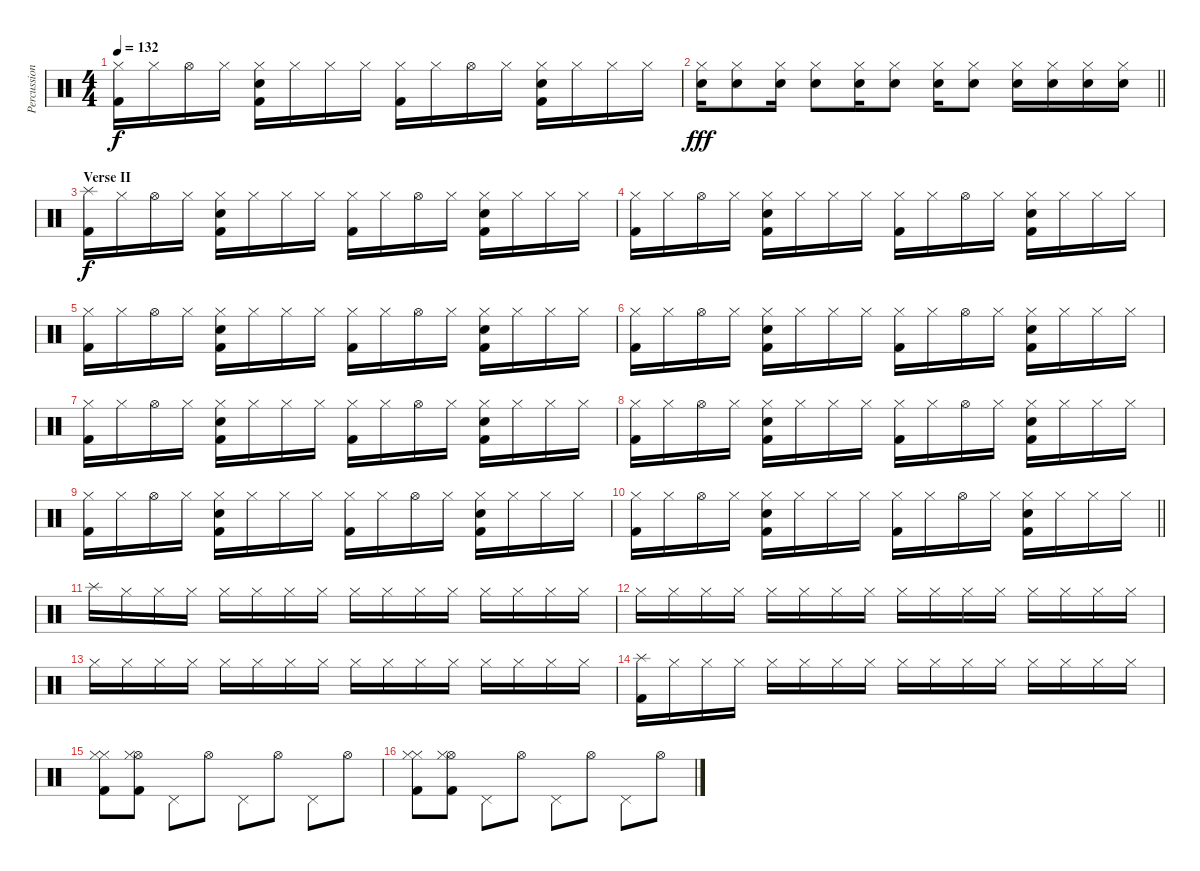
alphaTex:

\track ("Percussion I" "Percussion") {instrument percussion}
\staff {score}
\articulation defaults
\ts (4 4)
\tempo 132
\clef neutral
\ks c
("Hi-Hat (closed)" "Kick (hit) 2").16{dy f} "Hi-Hat (closed)".16 "Hi-Hat (open)".16 "Hi-Hat (closed)".16 ("Hi-Hat (closed)" "Hand Clap (hit)" "Kick (hit) 2").16 "Hi-Hat (closed)".16 "Hi-Hat (closed)".16 "Hi-Hat (closed)".16 ("Hi-Hat (closed)" "Kick (hit) 2").16 "Hi-Hat (closed)".16 "Hi-Hat (open)".16 "Hi-Hat (closed)".16 ("Hi-Hat (closed)" "Hand Clap (hit)" "Kick (hit) 2").16 "Hi-Hat (closed)".16 "Hi-Hat (closed)".16 "Hi-Hat (closed)".16 |
\barLineRight lightlight
("Electric Snare (hit)" "Hi-Hat (closed)").16{dy fff} ("Electric Snare (hit)" "Hi-Hat (closed)").8 ("Electric Snare (hit)" "Hi-Hat (closed)").16 ("Electric Snare (hit)" "Hi-Hat (closed)").8 ("Electric Snare (hit)" "Hi-Hat (closed)").16 ("Electric Snare (hit)" "Hi-Hat (closed)").8 ("Electric Snare (hit)" "Hi-Hat (closed)").16 ("Electric Snare (hit)" "Hi-Hat (closed)").8 ("Electric Snare (hit)" "Hi-Hat (closed)").16 ("Electric Snare (hit)" "Hi-Hat (closed)").16 ("Electric Snare (hit)" "Hi-Hat (closed)").16 ("Electric Snare (hit)" "Hi-Hat (closed)").16 |
\section ("" "Verse II")
("Splash (hit)" "Kick (hit) 2").16{dy f} "Hi-Hat (closed)".16 "Hi-Hat (open)".16 "Hi-Hat (closed)".16 ("Hi-Hat (closed)" "Hand Clap (hit)" "Kick (hit) 2").16 "Hi-Hat (closed)".16 "Hi-Hat (closed)".16 "Hi-Hat (closed)".16 ("Hi-Hat (closed)" "Kick (hit) 2").16 "Hi-Hat (closed)".16 "Hi-Hat (open)".16 "Hi-Hat (closed)".16 ("Hi-Hat (closed)" "Hand Clap (hit)" "Kick (hit) 2").16 "Hi-Hat (closed)".16 "Hi-Hat (closed)".16 "Hi-Hat (closed)".16 |
("Hi-Hat (closed)" "Kick (hit) 2").16 "Hi-Hat (closed)".16 "Hi-Hat (open)".16 "Hi-Hat (closed)".16 ("Hi-Hat (closed)" "Hand Clap (hit)" "Kick (hit) 2").16 "Hi-Hat (closed)".16 "Hi-Hat (closed)".16 "Hi-Hat (closed)".16 ("Hi-Hat (closed)" "Kick (hit) 2").16 "Hi-Hat (closed)".16 "Hi-Hat (open)".16 "Hi-Hat (closed)".16 ("Hi-Hat (closed)" "Hand Clap (hit)" "Kick (hit) 2").16 "Hi-Hat (closed)".16 "Hi-Hat (closed)".16 "Hi-Hat (closed)".16 |
("Hi-Hat (closed)" "Kick (hit) 2").16 "Hi-Hat (closed)".16 "Hi-Hat (open)".16 "Hi-Hat (closed)".16 ("Hi-Hat (closed)" "Hand Clap (hit)" "Kick (hit) 2").16 "Hi-Hat (closed)".16 "Hi-Hat (closed)".16 "Hi-Hat (closed)".16 ("Hi-Hat (closed)" "Kick (hit) 2").16 "Hi-Hat (closed)".16 "Hi-Hat (open)".16 "Hi-Hat (closed)".16 ("Hi-Hat (closed)" "Hand Clap (hit)" "Kick (hit) 2").16 "Hi-Hat (closed)".16 "Hi-Hat (closed)".16 "Hi-Hat (closed)".16 |
("Hi-Hat (closed)" "Kick (hit) 2").16 "Hi-Hat (closed)".16 "Hi-Hat (open)".16 "Hi-Hat (closed)".16 ("Hi-Hat (closed)" "Hand Clap (hit)" "Kick (hit) 2").16 "Hi-Hat (closed)".16 "Hi-Hat (closed)".16 "Hi-Hat (closed)".16 ("Hi-Hat (closed)" "Kick (hit) 2").16 "Hi-Hat (closed)".16 "Hi-Hat (open)".16 "Hi-Hat (closed)".16 ("Hi-Hat (closed)" "Hand Clap (hit)" "Kick (hit) 2").16 "Hi-Hat (closed)".16 "Hi-Hat (closed)".16 "Hi-Hat (closed)".16 |
("Hi-Hat (closed)" "Kick (hit) 2").16 "Hi-Hat (closed)".16 "Hi-Hat (open)".16 "Hi-Hat (closed)".16 ("Hi-Hat (closed)" "Hand Clap (hit)" "Kick (hit) 2").16 "Hi-Hat (closed)".16 "Hi-Hat (closed)".16 "Hi-Hat (closed)".16 ("Hi-Hat (closed)" "Kick (hit) 2").16 "Hi-Hat (closed)".16 "Hi-Hat (open)".16 "Hi-Hat (closed)".16 ("Hi-Hat (closed)" "Hand Clap (hit)" "Kick (hit) 2").16 "Hi-Hat (closed)".16 "Hi-Hat (closed)".16 "Hi-Hat (closed)".16 |
("Hi-Hat (closed)" "Kick (hit) 2").16 "Hi-Hat (closed)".16 "Hi-Hat (open)".16 "Hi-Hat (closed)".16 ("Hi-Hat (closed)" "Hand Clap (hit)" "Kick (hit) 2").16 "Hi-Hat (closed)".16 "Hi-Hat (closed)".16 "Hi-Hat (closed)".16 ("Hi-Hat (closed)" "Kick (hit) 2").16 "Hi-Hat (closed)".16 "Hi-Hat (open)".16 "Hi-Hat (closed)".16 ("Hi-Hat (closed)" "Hand Clap (hit)" "Kick (hit) 2").16 "Hi-Hat (closed)".16 "Hi-Hat (closed)".16 "Hi-Hat (closed)".16 |
("Hi-Hat (closed)" "Kick (hit) 2").16 "Hi-Hat (closed)".16 "Hi-Hat (open)".16 "Hi-Hat (closed)".16 ("Hi-Hat (closed)" "Hand Clap (hit)" "Kick (hit) 2").16 "Hi-Hat (closed)".16 "Hi-Hat (closed)".16 "Hi-Hat (closed)".16 ("Hi-Hat (closed)" "Kick (hit) 2").16 "Hi-Hat (closed)".16 "Hi-Hat (open)".16 "Hi-Hat (closed)".16 ("Hi-Hat (closed)" "Hand Clap (hit)" "Kick (hit) 2").16 "Hi-Hat (closed)".16 "Hi-Hat (closed)".16 "Hi-Hat (closed)".16 |
\barLineRight lightlight
("Hi-Hat (closed)" "Kick (hit) 2").16 "Hi-Hat (closed)".16 "Hi-Hat (open)".16 "Hi-Hat (closed)".16 ("Hi-Hat (closed)" "Hand Clap (hit)" "Kick (hit) 2").16 "Hi-Hat (closed)".16 "Hi-Hat (closed)".16 "Hi-Hat (closed)".16 ("Hi-Hat (closed)" "Kick (hit) 2").16 "Hi-Hat (closed)".16 "Hi-Hat (open)".16 "Hi-Hat (closed)".16 ("Hi-Hat (closed)" "Hand Clap (hit)" "Kick (hit) 2").16 "Hi-Hat (closed)".16 "Hi-Hat (closed)".16 "Hi-Hat (closed)".16 |
\section ("" "")
"Splash (hit)".16 "Hi-Hat (closed)".16 "Hi-Hat (closed)".16 "Hi-Hat (closed)".16 "Hi-Hat (closed)".16 "Hi-Hat (closed)".16 "Hi-Hat (closed)".16 "Hi-Hat (closed)".16 "Hi-Hat (closed)".16 "Hi-Hat (closed)".16 "Hi-Hat (closed)".16 "Hi-Hat (closed)".16 "Hi-Hat (closed)".16 "Hi-Hat (closed)".16 "Hi-Hat (closed)".16 "Hi-Hat (closed)".16 |
"Hi-Hat (closed)".16 "Hi-Hat (closed)".16 "Hi-Hat (closed)".16 "Hi-Hat (closed)".16 "Hi-Hat (closed)".16 "Hi-Hat (closed)".16 "Hi-Hat (closed)".16 "Hi-Hat (closed)".16 "Hi-Hat (closed)".16 "Hi-Hat (closed)".16 "Hi-Hat (closed)".16 "Hi-Hat (closed)".16 "Hi-Hat (closed)".16 "Hi-Hat (closed)".16 "Hi-Hat (closed)".16 "Hi-Hat (closed)".16 |
"Hi-Hat (closed)".16 "Hi-Hat (closed)".16 "Hi-Hat (closed)".16 "Hi-Hat (closed)".16 "Hi-Hat (closed)".16 "Hi-Hat (closed)".16 "Hi-Hat (closed)".16 "Hi-Hat (closed)".16 "Hi-Hat (closed)".16 "Hi-Hat (closed)".16 "Hi-Hat (closed)".16 "Hi-Hat (closed)".16 "Hi-Hat (closed)".16 "Hi-Hat (closed)".16 "Hi-Hat (closed)".16 "Hi-Hat (closed)".16 |
("Splash (hit)" "Kick (hit) 2").16 "Hi-Hat (closed)".16 "Hi-Hat (closed)".16 "Hi-Hat (closed)".16 "Hi-Hat (closed)".16 "Hi-Hat (closed)".16 "Hi-Hat (closed)".16 "Hi-Hat (closed)".16 "Hi-Hat (closed)".16 "Hi-Hat (closed)".16 "Hi-Hat (closed)".16 "Hi-Hat (closed)".16 "Hi-Hat (closed)".16 "Hi-Hat (closed)".16 "Hi-Hat (closed)".16 "Hi-Hat (closed)".16 |
("Hi-Hat (closed)" "Hi-Hat (closed)" "Kick (hit) 2").8 ("Hi-Hat (open)" "Hi-Hat (closed)" "Kick (hit) 2").8 "Pedal Hi-Hat (hit)".8 "Hi-Hat (open)".8 "Pedal Hi-Hat (hit)".8 "Hi-Hat (open)".8 "Pedal Hi-Hat (hit)".8 "Hi-Hat (open)".8 |
("Hi-Hat (closed)" "Hi-Hat (closed)" "Kick (hit) 2").8 ("Hi-Hat (open)" "Hi-Hat (closed)" "Kick (hit) 2").8 "Pedal Hi-Hat (hit)".8 "Hi-Hat (open)".8 "Pedal Hi-Hat (hit)".8 "Hi-Hat (open)".8 "Pedal Hi-Hat (hit)".8 "Hi-Hat (open)".8
